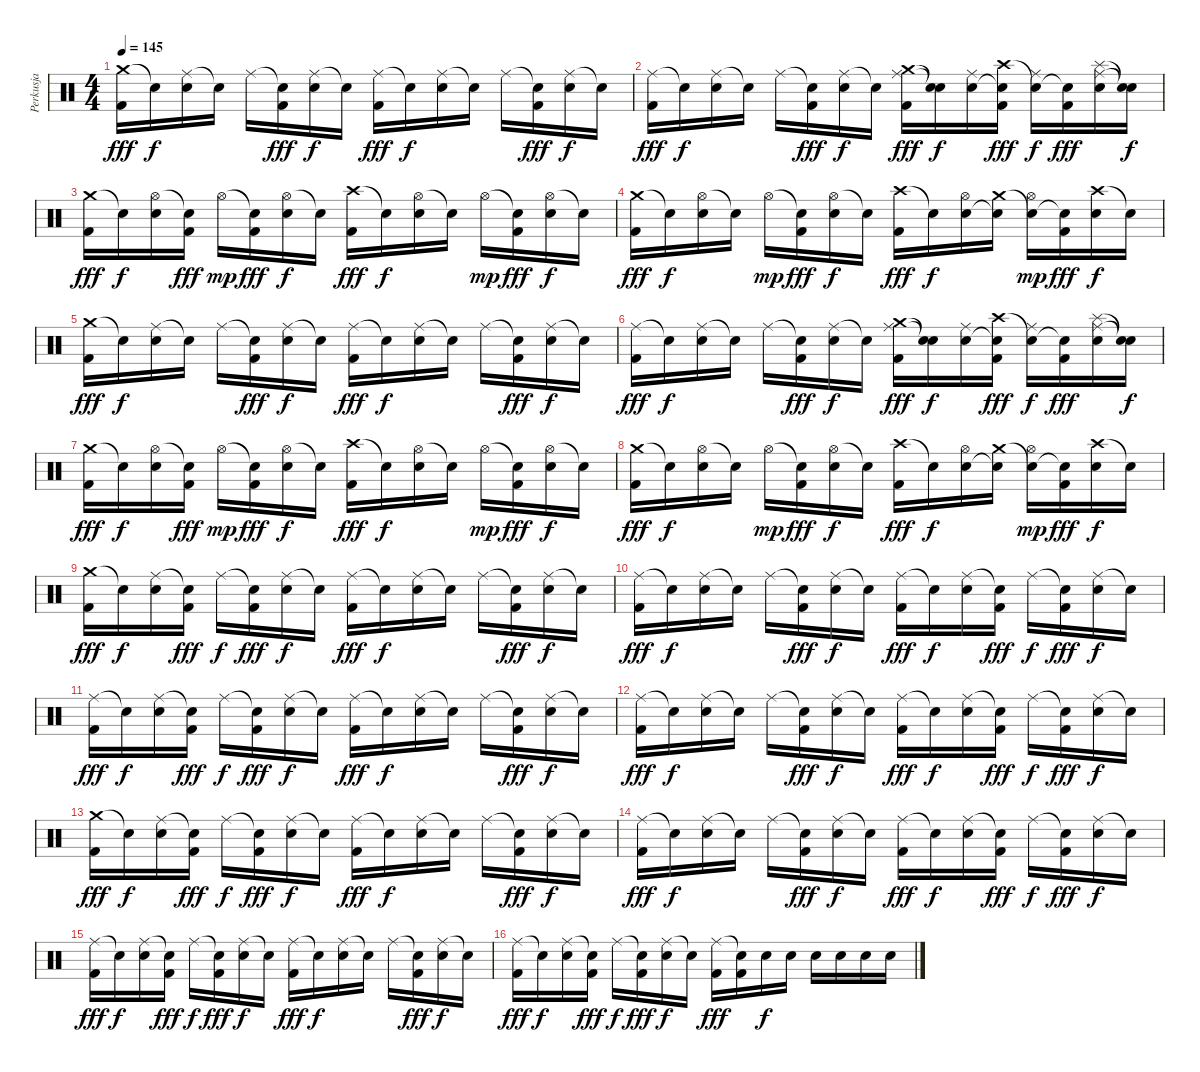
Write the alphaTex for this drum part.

\track ("Perkusja" "Perkusja") {instrument percussion}
\staff {score}
\articulation defaults
\ts (4 4)
\tempo 145
\clef neutral
\ks c
("Crash medium (hit)" "Kick (hit) 2").16{dy fff} "Snare (hit)"{t}.16{dy f} ("Ride (middle)" "Electric Snare (hit)").16 "Snare (hit)"{t}.16 "Ride (middle)".16 ("Snare (hit)"{t} "Kick (hit) 2").16{dy fff} ("Ride (middle)" "Electric Snare (hit)").16{dy f} "Snare (hit)"{t}.16 ("Ride (middle)" "Kick (hit) 2").16{dy fff} "Snare (hit)"{t}.16{dy f} ("Ride (middle)" "Electric Snare (hit)").16 "Snare (hit)"{t}.16 "Ride (middle)".16 ("Snare (hit)"{t} "Kick (hit) 2").16{dy fff} ("Ride (middle)" "Electric Snare (hit)").16{dy f} "Snare (hit)"{t}.16 |
("Ride (middle)" "Kick (hit) 2").16{dy fff} "Snare (hit)"{t}.16{dy f} ("Ride (middle)" "Electric Snare (hit)").16 "Snare (hit)"{t}.16 "Ride (middle)".16 ("Snare (hit)"{t} "Kick (hit) 2").16{dy fff} ("Ride (middle)" "Electric Snare (hit)").16{dy f} "Snare (hit)"{t}.16 ("Crash medium (hit)" "Ride (middle)" "Kick (hit) 2").16{dy fff} ("Snare (hit)"{t} "Snare (hit)"{t}).16{dy f} ("Ride (middle)" "Electric Snare (hit)").16 ("Crash high (hit)" "Snare (hit)"{t} "Kick (hit) 2").16{dy fff} ("Snare (hit)"{t} "Ride (middle)").16{dy f} ("Snare (hit)"{t} "Kick (hit) 2").16{dy fff} ("Splash (hit)" "Ride (middle)" "Electric Snare (hit)").16 ("Snare (hit)"{t} "Snare (hit)"{t}).16{dy f} |
("Crash medium (hit)" "Kick (hit) 2").16{dy fff} "Snare (hit)"{t}.16{dy f} ("Hi-Hat (open)" "Electric Snare (hit)").16 ("Snare (hit)"{t} "Kick (hit) 2").16{dy fff} "Hi-Hat (open)".16{dy mp} ("Snare (hit)"{t} "Kick (hit) 2").16{dy fff} ("Hi-Hat (open)" "Electric Snare (hit)").16{dy f} "Snare (hit)"{t}.16 ("Crash high (hit)" "Kick (hit) 2").16{dy fff} "Snare (hit)"{t}.16{dy f} ("Hi-Hat (open)" "Electric Snare (hit)").16 "Snare (hit)"{t}.16 "Hi-Hat (open)".16{dy mp} ("Snare (hit)"{t} "Kick (hit) 2").16{dy fff} ("Hi-Hat (open)" "Electric Snare (hit)").16{dy f} "Snare (hit)"{t}.16 |
("Crash medium (hit)" "Kick (hit) 2").16{dy fff} "Snare (hit)"{t}.16{dy f} ("Hi-Hat (open)" "Electric Snare (hit)").16 "Snare (hit)"{t}.16 "Hi-Hat (open)".16{dy mp} ("Snare (hit)"{t} "Kick (hit) 2").16{dy fff} ("Hi-Hat (open)" "Electric Snare (hit)").16{dy f} "Snare (hit)"{t}.16 ("Crash high (hit)" "Kick (hit) 2").16{dy fff} "Snare (hit)"{t}.16{dy f} ("Hi-Hat (open)" "Electric Snare (hit)").16 ("Crash medium (hit)" "Snare (hit)"{t}).16 ("Snare (hit)"{t} "Hi-Hat (open)").16{dy mp} ("Snare (hit)"{t} "Kick (hit) 2").16{dy fff} ("Crash high (hit)" "Electric Snare (hit)").16{dy f} "Snare (hit)"{t}.16 |
("Crash medium (hit)" "Kick (hit) 2").16{dy fff} "Snare (hit)"{t}.16{dy f} ("Ride (middle)" "Electric Snare (hit)").16 "Snare (hit)"{t}.16 "Ride (middle)".16 ("Snare (hit)"{t} "Kick (hit) 2").16{dy fff} ("Ride (middle)" "Electric Snare (hit)").16{dy f} "Snare (hit)"{t}.16 ("Ride (middle)" "Kick (hit) 2").16{dy fff} "Snare (hit)"{t}.16{dy f} ("Ride (middle)" "Electric Snare (hit)").16 "Snare (hit)"{t}.16 "Ride (middle)".16 ("Snare (hit)"{t} "Kick (hit) 2").16{dy fff} ("Ride (middle)" "Electric Snare (hit)").16{dy f} "Snare (hit)"{t}.16 |
("Ride (middle)" "Kick (hit) 2").16{dy fff} "Snare (hit)"{t}.16{dy f} ("Ride (middle)" "Electric Snare (hit)").16 "Snare (hit)"{t}.16 "Ride (middle)".16 ("Snare (hit)"{t} "Kick (hit) 2").16{dy fff} ("Ride (middle)" "Electric Snare (hit)").16{dy f} "Snare (hit)"{t}.16 ("Crash medium (hit)" "Ride (middle)" "Kick (hit) 2").16{dy fff} ("Snare (hit)"{t} "Snare (hit)"{t}).16{dy f} ("Ride (middle)" "Electric Snare (hit)").16 ("Crash high (hit)" "Snare (hit)"{t} "Kick (hit) 2").16{dy fff} ("Snare (hit)"{t} "Ride (middle)").16{dy f} ("Snare (hit)"{t} "Kick (hit) 2").16{dy fff} ("Splash (hit)" "Ride (middle)" "Electric Snare (hit)").16 ("Snare (hit)"{t} "Snare (hit)"{t}).16{dy f} |
("Crash medium (hit)" "Kick (hit) 2").16{dy fff} "Snare (hit)"{t}.16{dy f} ("Hi-Hat (open)" "Electric Snare (hit)").16 ("Snare (hit)"{t} "Kick (hit) 2").16{dy fff} "Hi-Hat (open)".16{dy mp} ("Snare (hit)"{t} "Kick (hit) 2").16{dy fff} ("Hi-Hat (open)" "Electric Snare (hit)").16{dy f} "Snare (hit)"{t}.16 ("Crash high (hit)" "Kick (hit) 2").16{dy fff} "Snare (hit)"{t}.16{dy f} ("Hi-Hat (open)" "Electric Snare (hit)").16 "Snare (hit)"{t}.16 "Hi-Hat (open)".16{dy mp} ("Snare (hit)"{t} "Kick (hit) 2").16{dy fff} ("Hi-Hat (open)" "Electric Snare (hit)").16{dy f} "Snare (hit)"{t}.16 |
("Crash medium (hit)" "Kick (hit) 2").16{dy fff} "Snare (hit)"{t}.16{dy f} ("Hi-Hat (open)" "Electric Snare (hit)").16 "Snare (hit)"{t}.16 "Hi-Hat (open)".16{dy mp} ("Snare (hit)"{t} "Kick (hit) 2").16{dy fff} ("Hi-Hat (open)" "Electric Snare (hit)").16{dy f} "Snare (hit)"{t}.16 ("Crash high (hit)" "Kick (hit) 2").16{dy fff} "Snare (hit)"{t}.16{dy f} ("Hi-Hat (open)" "Electric Snare (hit)").16 ("Crash medium (hit)" "Snare (hit)"{t}).16 ("Snare (hit)"{t} "Hi-Hat (open)").16{dy mp} ("Snare (hit)"{t} "Kick (hit) 2").16{dy fff} ("Crash high (hit)" "Electric Snare (hit)").16{dy f} "Snare (hit)"{t}.16 |
("Crash medium (hit)" "Kick (hit) 2").16{dy fff} "Snare (hit)"{t}.16{dy f} ("Ride (middle)" "Electric Snare (hit)").16 ("Snare (hit)"{t} "Kick (hit) 2").16{dy fff} "Ride (middle)".16{dy f} ("Snare (hit)"{t} "Kick (hit) 2").16{dy fff} ("Ride (middle)" "Electric Snare (hit)").16{dy f} "Snare (hit)"{t}.16 ("Ride (middle)" "Kick (hit) 2").16{dy fff} "Snare (hit)"{t}.16{dy f} ("Ride (middle)" "Electric Snare (hit)").16 "Snare (hit)"{t}.16 "Ride (middle)".16 ("Snare (hit)"{t} "Kick (hit) 2").16{dy fff} ("Ride (middle)" "Electric Snare (hit)").16{dy f} "Snare (hit)"{t}.16 |
("Ride (middle)" "Kick (hit) 2").16{dy fff} "Snare (hit)"{t}.16{dy f} ("Ride (middle)" "Electric Snare (hit)").16 "Snare (hit)"{t}.16 "Ride (middle)".16 ("Snare (hit)"{t} "Kick (hit) 2").16{dy fff} ("Ride (middle)" "Electric Snare (hit)").16{dy f} "Snare (hit)"{t}.16 ("Ride (middle)" "Kick (hit) 2").16{dy fff} "Snare (hit)"{t}.16{dy f} ("Ride (middle)" "Electric Snare (hit)").16 ("Snare (hit)"{t} "Kick (hit) 2").16{dy fff} "Ride (middle)".16{dy f} ("Snare (hit)"{t} "Kick (hit) 2").16{dy fff} ("Ride (middle)" "Electric Snare (hit)").16{dy f} "Snare (hit)"{t}.16 |
("Ride (middle)" "Kick (hit) 2").16{dy fff} "Snare (hit)"{t}.16{dy f} ("Ride (middle)" "Electric Snare (hit)").16 ("Snare (hit)"{t} "Kick (hit) 2").16{dy fff} "Ride (middle)".16{dy f} ("Snare (hit)"{t} "Kick (hit) 2").16{dy fff} ("Ride (middle)" "Electric Snare (hit)").16{dy f} "Snare (hit)"{t}.16 ("Ride (middle)" "Kick (hit) 2").16{dy fff} "Snare (hit)"{t}.16{dy f} ("Ride (middle)" "Electric Snare (hit)").16 "Snare (hit)"{t}.16 "Ride (middle)".16 ("Snare (hit)"{t} "Kick (hit) 2").16{dy fff} ("Ride (middle)" "Electric Snare (hit)").16{dy f} "Snare (hit)"{t}.16 |
("Ride (middle)" "Kick (hit) 2").16{dy fff} "Snare (hit)"{t}.16{dy f} ("Ride (middle)" "Electric Snare (hit)").16 "Snare (hit)"{t}.16 "Ride (middle)".16 ("Snare (hit)"{t} "Kick (hit) 2").16{dy fff} ("Ride (middle)" "Electric Snare (hit)").16{dy f} "Snare (hit)"{t}.16 ("Ride (middle)" "Kick (hit) 2").16{dy fff} "Snare (hit)"{t}.16{dy f} ("Ride (middle)" "Electric Snare (hit)").16 ("Snare (hit)"{t} "Kick (hit) 2").16{dy fff} "Ride (middle)".16{dy f} ("Snare (hit)"{t} "Kick (hit) 2").16{dy fff} ("Ride (middle)" "Electric Snare (hit)").16{dy f} "Snare (hit)"{t}.16 |
("Crash medium (hit)" "Kick (hit) 2").16{dy fff} "Snare (hit)"{t}.16{dy f} ("Ride (middle)" "Electric Snare (hit)").16 ("Snare (hit)"{t} "Kick (hit) 2").16{dy fff} "Ride (middle)".16{dy f} ("Snare (hit)"{t} "Kick (hit) 2").16{dy fff} ("Ride (middle)" "Electric Snare (hit)").16{dy f} "Snare (hit)"{t}.16 ("Ride (middle)" "Kick (hit) 2").16{dy fff} "Snare (hit)"{t}.16{dy f} ("Ride (middle)" "Electric Snare (hit)").16 "Snare (hit)"{t}.16 "Ride (middle)".16 ("Snare (hit)"{t} "Kick (hit) 2").16{dy fff} ("Ride (middle)" "Electric Snare (hit)").16{dy f} "Snare (hit)"{t}.16 |
("Ride (middle)" "Kick (hit) 2").16{dy fff} "Snare (hit)"{t}.16{dy f} ("Ride (middle)" "Electric Snare (hit)").16 "Snare (hit)"{t}.16 "Ride (middle)".16 ("Snare (hit)"{t} "Kick (hit) 2").16{dy fff} ("Ride (middle)" "Electric Snare (hit)").16{dy f} "Snare (hit)"{t}.16 ("Ride (middle)" "Kick (hit) 2").16{dy fff} "Snare (hit)"{t}.16{dy f} ("Ride (middle)" "Electric Snare (hit)").16 ("Snare (hit)"{t} "Kick (hit) 2").16{dy fff} "Ride (middle)".16{dy f} ("Snare (hit)"{t} "Kick (hit) 2").16{dy fff} ("Ride (middle)" "Electric Snare (hit)").16{dy f} "Snare (hit)"{t}.16 |
("Ride (middle)" "Kick (hit) 2").16{dy fff} "Snare (hit)"{t}.16{dy f} ("Ride (middle)" "Electric Snare (hit)").16 ("Snare (hit)"{t} "Kick (hit) 2").16{dy fff} "Ride (middle)".16{dy f} ("Snare (hit)"{t} "Kick (hit) 2").16{dy fff} ("Ride (middle)" "Electric Snare (hit)").16{dy f} "Snare (hit)"{t}.16 ("Ride (middle)" "Kick (hit) 2").16{dy fff} "Snare (hit)"{t}.16{dy f} ("Ride (middle)" "Electric Snare (hit)").16 "Snare (hit)"{t}.16 "Ride (middle)".16 ("Snare (hit)"{t} "Kick (hit) 2").16{dy fff} ("Ride (middle)" "Electric Snare (hit)").16{dy f} "Snare (hit)"{t}.16 |
("Ride (middle)" "Kick (hit) 2").16{dy fff} "Snare (hit)"{t}.16{dy f} ("Ride (middle)" "Electric Snare (hit)").16 ("Snare (hit)"{t} "Kick (hit) 2").16{dy fff} "Ride (middle)".16{dy f} ("Snare (hit)"{t} "Kick (hit) 2").16{dy fff} ("Ride (middle)" "Electric Snare (hit)").16{dy f} "Snare (hit)"{t}.16 ("Ride (middle)" "Kick (hit) 2").16{dy fff} ("Snare (hit)"{t} "Kick (hit) 2").16 "Electric Snare (hit)".16{dy f} "Electric Snare (hit)".16 "Electric Snare (hit)".16 "Electric Snare (hit)".16 "Electric Snare (hit)".16 "Electric Snare (hit)".16
